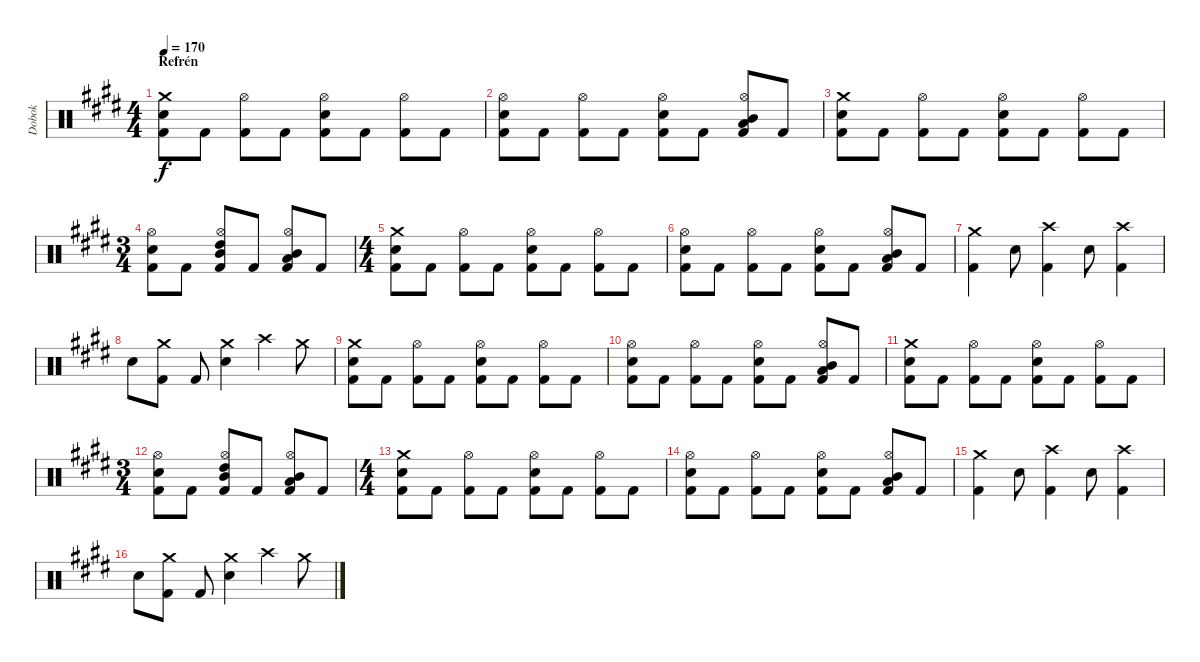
\track ("Dobok" "Dobok") {instrument percussion}
\staff {score}
\articulation defaults
\ts (4 4)
\section ("" "Refrén")
\tempo 170
\clef neutral
\ks c#minor
("Crash medium (hit)" "Snare (hit) 2" "Kick (hit) 2").8{dy f} "Kick (hit) 2".8 ("Hi-Hat (open)" "Kick (hit) 2").8 "Kick (hit) 2".8 ("Hi-Hat (open)" "Snare (hit) 2" "Kick (hit) 2").8 "Kick (hit) 2".8 ("Hi-Hat (open)" "Kick (hit) 2").8 "Kick (hit) 2".8 |
("Hi-Hat (open)" "Snare (hit) 2" "Kick (hit) 2").8 "Kick (hit) 2".8 ("Hi-Hat (open)" "Kick (hit) 2").8 "Kick (hit) 2".8 ("Hi-Hat (open)" "Snare (hit) 2" "Kick (hit) 2").8 "Kick (hit) 2".8 ("Hi-Hat (open)" "Low Tom (hit)" "Mid Tom (hit)" "Kick (hit) 2").8 "Kick (hit) 2".8 |
("Crash medium (hit)" "Snare (hit) 2" "Kick (hit) 2").8 "Kick (hit) 2".8 ("Hi-Hat (open)" "Kick (hit) 2").8 "Kick (hit) 2".8 ("Hi-Hat (open)" "Snare (hit) 2" "Kick (hit) 2").8 "Kick (hit) 2".8 ("Hi-Hat (open)" "Kick (hit) 2").8 "Kick (hit) 2".8 |
\ts (3 4)
("Hi-Hat (open)" "Snare (hit) 2" "Kick (hit) 2").8 "Kick (hit) 2".8 ("Hi-Hat (open)" "High Tom (hit)" "Mid Tom (hit)" "Kick (hit) 2").8 "Kick (hit) 2".8 ("Hi-Hat (open)" "Mid Tom (hit)" "Low Tom (hit)" "Kick (hit) 2").8 "Kick (hit) 2".8 |
\ts (4 4)
("Crash medium (hit)" "Snare (hit) 2" "Kick (hit) 2").8 "Kick (hit) 2".8 ("Hi-Hat (open)" "Kick (hit) 2").8 "Kick (hit) 2".8 ("Hi-Hat (open)" "Snare (hit) 2" "Kick (hit) 2").8 "Kick (hit) 2".8 ("Hi-Hat (open)" "Kick (hit) 2").8 "Kick (hit) 2".8 |
("Hi-Hat (open)" "Snare (hit) 2" "Kick (hit) 2").8 "Kick (hit) 2".8 ("Hi-Hat (open)" "Kick (hit) 2").8 "Kick (hit) 2".8 ("Hi-Hat (open)" "Snare (hit) 2" "Kick (hit) 2").8 "Kick (hit) 2".8 ("Hi-Hat (open)" "Low Tom (hit)" "Mid Tom (hit)" "Kick (hit) 2").8 "Kick (hit) 2".8 |
("Crash medium (hit)" "Kick (hit) 2").4 "Snare (hit) 2".8 ("Crash high (hit)" "Kick (hit) 2").4 "Snare (hit) 2".8 ("Crash high (hit)" "Kick (hit) 2").4 |
"Snare (hit) 2".8 ("Crash medium (hit)" "Kick (hit) 2").8 "Kick (hit) 2".8 ("Crash medium (hit)" "Snare (hit) 2").4 "Crash high (hit)".4 "Crash medium (hit)".8 |
("Crash medium (hit)" "Snare (hit) 2" "Kick (hit) 2").8 "Kick (hit) 2".8 ("Hi-Hat (open)" "Kick (hit) 2").8 "Kick (hit) 2".8 ("Hi-Hat (open)" "Snare (hit) 2" "Kick (hit) 2").8 "Kick (hit) 2".8 ("Hi-Hat (open)" "Kick (hit) 2").8 "Kick (hit) 2".8 |
("Hi-Hat (open)" "Snare (hit) 2" "Kick (hit) 2").8 "Kick (hit) 2".8 ("Hi-Hat (open)" "Kick (hit) 2").8 "Kick (hit) 2".8 ("Hi-Hat (open)" "Snare (hit) 2" "Kick (hit) 2").8 "Kick (hit) 2".8 ("Hi-Hat (open)" "Low Tom (hit)" "Mid Tom (hit)" "Kick (hit) 2").8 "Kick (hit) 2".8 |
("Crash medium (hit)" "Snare (hit) 2" "Kick (hit) 2").8 "Kick (hit) 2".8 ("Hi-Hat (open)" "Kick (hit) 2").8 "Kick (hit) 2".8 ("Hi-Hat (open)" "Snare (hit) 2" "Kick (hit) 2").8 "Kick (hit) 2".8 ("Hi-Hat (open)" "Kick (hit) 2").8 "Kick (hit) 2".8 |
\ts (3 4)
("Hi-Hat (open)" "Snare (hit) 2" "Kick (hit) 2").8 "Kick (hit) 2".8 ("Hi-Hat (open)" "High Tom (hit)" "Mid Tom (hit)" "Kick (hit) 2").8 "Kick (hit) 2".8 ("Hi-Hat (open)" "Mid Tom (hit)" "Low Tom (hit)" "Kick (hit) 2").8 "Kick (hit) 2".8 |
\ts (4 4)
("Crash medium (hit)" "Snare (hit) 2" "Kick (hit) 2").8 "Kick (hit) 2".8 ("Hi-Hat (open)" "Kick (hit) 2").8 "Kick (hit) 2".8 ("Hi-Hat (open)" "Snare (hit) 2" "Kick (hit) 2").8 "Kick (hit) 2".8 ("Hi-Hat (open)" "Kick (hit) 2").8 "Kick (hit) 2".8 |
("Hi-Hat (open)" "Snare (hit) 2" "Kick (hit) 2").8 "Kick (hit) 2".8 ("Hi-Hat (open)" "Kick (hit) 2").8 "Kick (hit) 2".8 ("Hi-Hat (open)" "Snare (hit) 2" "Kick (hit) 2").8 "Kick (hit) 2".8 ("Hi-Hat (open)" "Low Tom (hit)" "Mid Tom (hit)" "Kick (hit) 2").8 "Kick (hit) 2".8 |
("Crash medium (hit)" "Kick (hit) 2").4 "Snare (hit) 2".8 ("Crash high (hit)" "Kick (hit) 2").4 "Snare (hit) 2".8 ("Crash high (hit)" "Kick (hit) 2").4 |
"Snare (hit) 2".8 ("Crash medium (hit)" "Kick (hit) 2").8 "Kick (hit) 2".8 ("Crash medium (hit)" "Snare (hit) 2").4 "Crash high (hit)".4 "Crash medium (hit)".8
